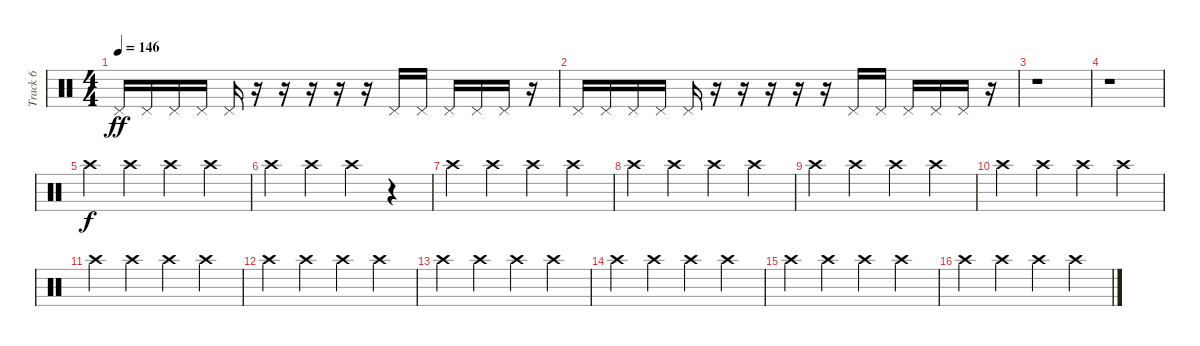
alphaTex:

\track ("Track 6" "Track 6") {instrument percussion}
\staff {score}
\articulation defaults
\ts (4 4)
\tempo 146
\clef neutral
\ks c "Pedal Hi-Hat (hit)".16{dy ff} "Pedal Hi-Hat (hit)".16 "Pedal Hi-Hat (hit)".16 "Pedal Hi-Hat (hit)".16 "Pedal Hi-Hat (hit)".16
r.16 r.16 r.16 r.16 r.16 "Pedal Hi-Hat (hit)".16 "Pedal Hi-Hat (hit)".16 "Pedal Hi-Hat (hit)".16 "Pedal Hi-Hat (hit)".16 "Pedal Hi-Hat (hit)".16 r.16 |
"Pedal Hi-Hat (hit)".16 "Pedal Hi-Hat (hit)".16 "Pedal Hi-Hat (hit)".16 "Pedal Hi-Hat (hit)".16 "Pedal Hi-Hat (hit)".16 r.16 r.16 r.16 r.16 r.16 "Pedal Hi-Hat (hit)".16 "Pedal Hi-Hat (hit)".16 "Pedal Hi-Hat (hit)".16 "Pedal Hi-Hat (hit)".16 "Pedal Hi-Hat (hit)".16 r.16 |
r.1 |
r.1 |
"Crash high (hit)".4{dy f} "Crash high (hit)".4 "Crash high (hit)".4 "Crash high (hit)".4 |
"Crash high (hit)".4 "Crash high (hit)".4 "Crash high (hit)".4 r.4 |
"Crash high (hit)".4 "Crash high (hit)".4 "Crash high (hit)".4 "Crash high (hit)".4 |
"Crash high (hit)".4 "Crash high (hit)".4 "Crash high (hit)".4 "Crash high (hit)".4 |
"Crash high (hit)".4 "Crash high (hit)".4 "Crash high (hit)".4 "Crash high (hit)".4 |
"Crash high (hit)".4 "Crash high (hit)".4 "Crash high (hit)".4 "Crash high (hit)".4 |
"Crash high (hit)".4 "Crash high (hit)".4 "Crash high (hit)".4 "Crash high (hit)".4 |
"Crash high (hit)".4 "Crash high (hit)".4 "Crash high (hit)".4 "Crash high (hit)".4 |
"Crash high (hit)".4 "Crash high (hit)".4 "Crash high (hit)".4 "Crash high (hit)".4 |
"Crash high (hit)".4 "Crash high (hit)".4 "Crash high (hit)".4 "Crash high (hit)".4 |
"Crash high (hit)".4 "Crash high (hit)".4 "Crash high (hit)".4 "Crash high (hit)".4 |
"Crash high (hit)".4 "Crash high (hit)".4 "Crash high (hit)".4 "Crash high (hit)".4
